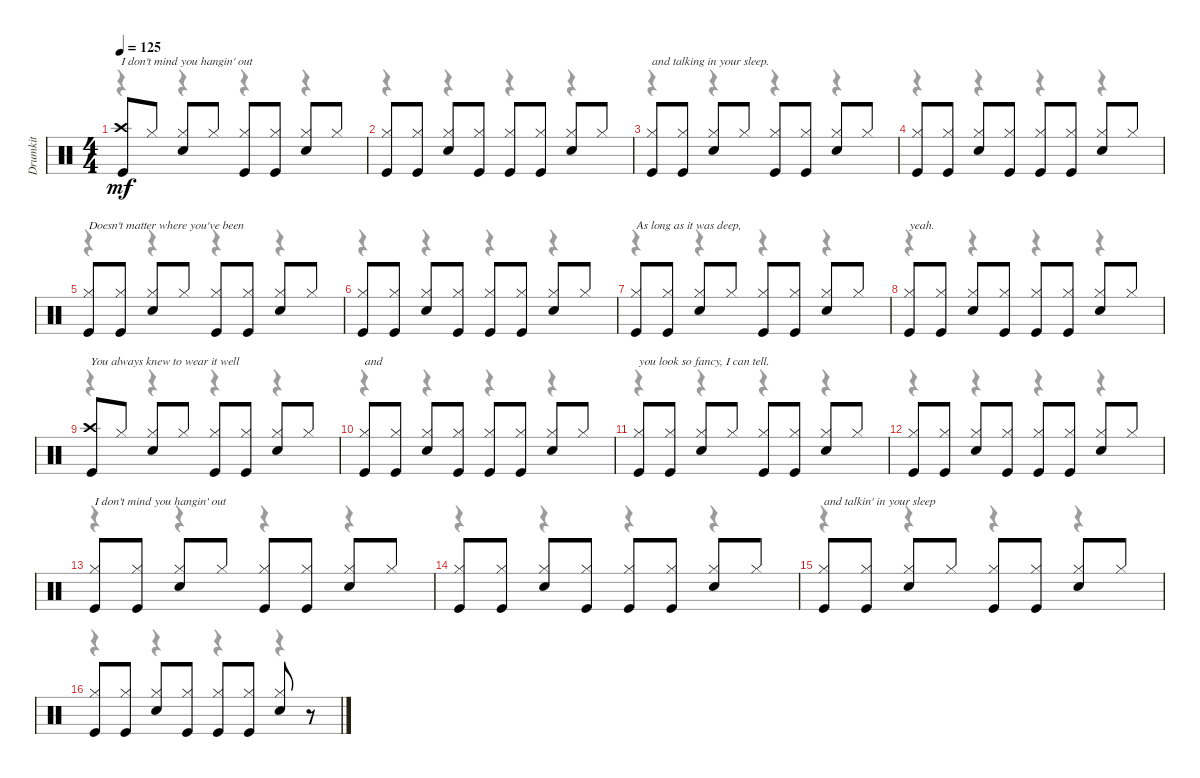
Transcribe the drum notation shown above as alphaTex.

\track ("Drumkit" "Drumkit") {instrument percussion}
\staff {score}
\articulation defaults
\voice
\ts (4 4)
\tempo 125
\clef neutral
\ks c
("Kick (hit)" "Crash high (hit)").8{txt "I don't mind you hangin' out" dy mf} "Hi-Hat (closed)".8 ("Hi-Hat (closed)" "Snare (hit) 2").8 "Hi-Hat (closed)".8 ("Hi-Hat (closed)" "Kick (hit)").8 ("Hi-Hat (closed)" "Kick (hit)").8 ("Hi-Hat (closed)" "Snare (hit) 2").8 "Hi-Hat (closed)".8 |
("Hi-Hat (closed)" "Kick (hit)").8 ("Hi-Hat (closed)" "Kick (hit)").8 ("Hi-Hat (closed)" "Snare (hit) 2").8 ("Hi-Hat (closed)" "Kick (hit)").8 ("Hi-Hat (closed)" "Kick (hit)").8 ("Hi-Hat (closed)" "Kick (hit)").8 ("Hi-Hat (closed)" "Snare (hit) 2").8 "Hi-Hat (closed)".8 |
("Hi-Hat (closed)" "Kick (hit)").8{txt "and talking in your sleep."} ("Hi-Hat (closed)" "Kick (hit)").8 ("Hi-Hat (closed)" "Snare (hit) 2").8 "Hi-Hat (closed)".8 ("Hi-Hat (closed)" "Kick (hit)").8 ("Hi-Hat (closed)" "Kick (hit)").8 ("Hi-Hat (closed)" "Snare (hit) 2").8 "Hi-Hat (closed)".8 |
("Hi-Hat (closed)" "Kick (hit)").8 ("Hi-Hat (closed)" "Kick (hit)").8 ("Hi-Hat (closed)" "Snare (hit) 2").8 ("Hi-Hat (closed)" "Kick (hit)").8 ("Hi-Hat (closed)" "Kick (hit)").8 ("Hi-Hat (closed)" "Kick (hit)").8 ("Hi-Hat (closed)" "Snare (hit) 2").8 "Hi-Hat (closed)".8 |
("Kick (hit)" "Hi-Hat (closed)").8{txt "Doesn't matter where you've been"} ("Hi-Hat (closed)" "Kick (hit)").8 ("Hi-Hat (closed)" "Snare (hit) 2").8 "Hi-Hat (closed)".8 ("Hi-Hat (closed)" "Kick (hit)").8 ("Hi-Hat (closed)" "Kick (hit)").8 ("Hi-Hat (closed)" "Snare (hit) 2").8 "Hi-Hat (closed)".8 |
("Hi-Hat (closed)" "Kick (hit)").8 ("Hi-Hat (closed)" "Kick (hit)").8 ("Hi-Hat (closed)" "Snare (hit) 2").8 ("Hi-Hat (closed)" "Kick (hit)").8 ("Hi-Hat (closed)" "Kick (hit)").8 ("Hi-Hat (closed)" "Kick (hit)").8 ("Hi-Hat (closed)" "Snare (hit) 2").8 "Hi-Hat (closed)".8 |
("Hi-Hat (closed)" "Kick (hit)").8{txt "As long as it was deep,"} ("Hi-Hat (closed)" "Kick (hit)").8 ("Hi-Hat (closed)" "Snare (hit) 2").8 "Hi-Hat (closed)".8 ("Hi-Hat (closed)" "Kick (hit)").8 ("Hi-Hat (closed)" "Kick (hit)").8 ("Hi-Hat (closed)" "Snare (hit) 2").8 "Hi-Hat (closed)".8 |
("Hi-Hat (closed)" "Kick (hit)").8{txt "yeah."} ("Hi-Hat (closed)" "Kick (hit)").8 ("Hi-Hat (closed)" "Snare (hit) 2").8 ("Hi-Hat (closed)" "Kick (hit)").8 ("Hi-Hat (closed)" "Kick (hit)").8 ("Hi-Hat (closed)" "Kick (hit)").8 ("Hi-Hat (closed)" "Snare (hit) 2").8 "Hi-Hat (closed)".8 |
("Kick (hit)" "Crash high (hit)").8{txt "You always knew to wear it well"} "Hi-Hat (closed)".8 ("Hi-Hat (closed)" "Snare (hit) 2").8 "Hi-Hat (closed)".8 ("Hi-Hat (closed)" "Kick (hit)").8 ("Hi-Hat (closed)" "Kick (hit)").8 ("Hi-Hat (closed)" "Snare (hit) 2").8 "Hi-Hat (closed)".8 |
("Hi-Hat (closed)" "Kick (hit)").8{txt "and"} ("Hi-Hat (closed)" "Kick (hit)").8 ("Hi-Hat (closed)" "Snare (hit) 2").8 ("Hi-Hat (closed)" "Kick (hit)").8 ("Hi-Hat (closed)" "Kick (hit)").8 ("Hi-Hat (closed)" "Kick (hit)").8 ("Hi-Hat (closed)" "Snare (hit) 2").8 "Hi-Hat (closed)".8 |
("Hi-Hat (closed)" "Kick (hit)").8{txt "you look so fancy, I can tell."} ("Hi-Hat (closed)" "Kick (hit)").8 ("Hi-Hat (closed)" "Snare (hit) 2").8 "Hi-Hat (closed)".8 ("Hi-Hat (closed)" "Kick (hit)").8 ("Hi-Hat (closed)" "Kick (hit)").8 ("Hi-Hat (closed)" "Snare (hit) 2").8 "Hi-Hat (closed)".8 |
("Hi-Hat (closed)" "Kick (hit)").8 ("Hi-Hat (closed)" "Kick (hit)").8 ("Hi-Hat (closed)" "Snare (hit) 2").8 ("Hi-Hat (closed)" "Kick (hit)").8 ("Hi-Hat (closed)" "Kick (hit)").8 ("Hi-Hat (closed)" "Kick (hit)").8 ("Hi-Hat (closed)" "Snare (hit) 2").8 "Hi-Hat (closed)".8 |
("Kick (hit)" "Hi-Hat (closed)").8{txt "I don't mind you hangin' out"} ("Hi-Hat (closed)" "Kick (hit)").8 ("Hi-Hat (closed)" "Snare (hit) 2").8 "Hi-Hat (closed)".8 ("Hi-Hat (closed)" "Kick (hit)").8 ("Hi-Hat (closed)" "Kick (hit)").8 ("Hi-Hat (closed)" "Snare (hit) 2").8 "Hi-Hat (closed)".8 |
("Hi-Hat (closed)" "Kick (hit)").8 ("Hi-Hat (closed)" "Kick (hit)").8 ("Hi-Hat (closed)" "Snare (hit) 2").8 ("Hi-Hat (closed)" "Kick (hit)").8 ("Hi-Hat (closed)" "Kick (hit)").8 ("Hi-Hat (closed)" "Kick (hit)").8 ("Hi-Hat (closed)" "Snare (hit) 2").8 "Hi-Hat (closed)".8 |
("Hi-Hat (closed)" "Kick (hit)").8{txt "and talkin' in your sleep"} ("Hi-Hat (closed)" "Kick (hit)").8 ("Hi-Hat (closed)" "Snare (hit) 2").8 "Hi-Hat (closed)".8 ("Hi-Hat (closed)" "Kick (hit)").8 ("Hi-Hat (closed)" "Kick (hit)").8 ("Hi-Hat (closed)" "Snare (hit) 2").8 "Hi-Hat (closed)".8 |
("Hi-Hat (closed)" "Kick (hit)").8 ("Hi-Hat (closed)" "Kick (hit)").8 ("Hi-Hat (closed)" "Snare (hit) 2").8 ("Hi-Hat (closed)" "Kick (hit)").8 ("Hi-Hat (closed)" "Kick (hit)").8 ("Hi-Hat (closed)" "Kick (hit)").8 ("Hi-Hat (closed)" "Snare (hit) 2").8 r.8
\voice
\clef neutral
\ottava regular
\simile none
\ks c
r.4{dy f} r.4 r.4 r.4 |
r.4 r.4 r.4 r.4 |
r.4 r.4 r.4 r.4 |
r.4 r.4 r.4 r.4 |
r.4 r.4 r.4 r.4 |
r.4 r.4 r.4 r.4 |
r.4 r.4 r.4 r.4 |
r.4 r.4 r.4 r.4 |
r.4 r.4 r.4 r.4 |
r.4 r.4 r.4 r.4 |
r.4 r.4 r.4 r.4 |
r.4 r.4 r.4 r.4 |
r.4 r.4 r.4 r.4 |
r.4 r.4 r.4 r.4 |
r.4 r.4 r.4 r.4 |
r.4 r.4 r.4 r.4
